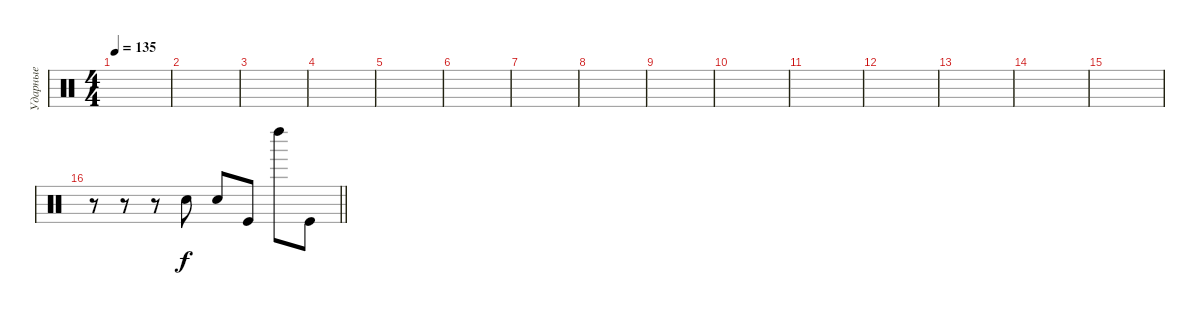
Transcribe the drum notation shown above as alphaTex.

\track ("Ударные" "Ударные") {instrument percussion}
\staff {score}
\articulation defaults
\ts (4 4)
\tempo 135
\clef neutral
\ks c
|
|
|
|
|
|
|
|
|
|
|
|
|
|
|
\barLineRight lightlight
r.8 r.8 r.8 "Electric Snare (hit)".8 "Electric Snare (hit)".8 "Kick (hit)".8 "Left Maraca (hit)".8 "Kick (hit)".8
